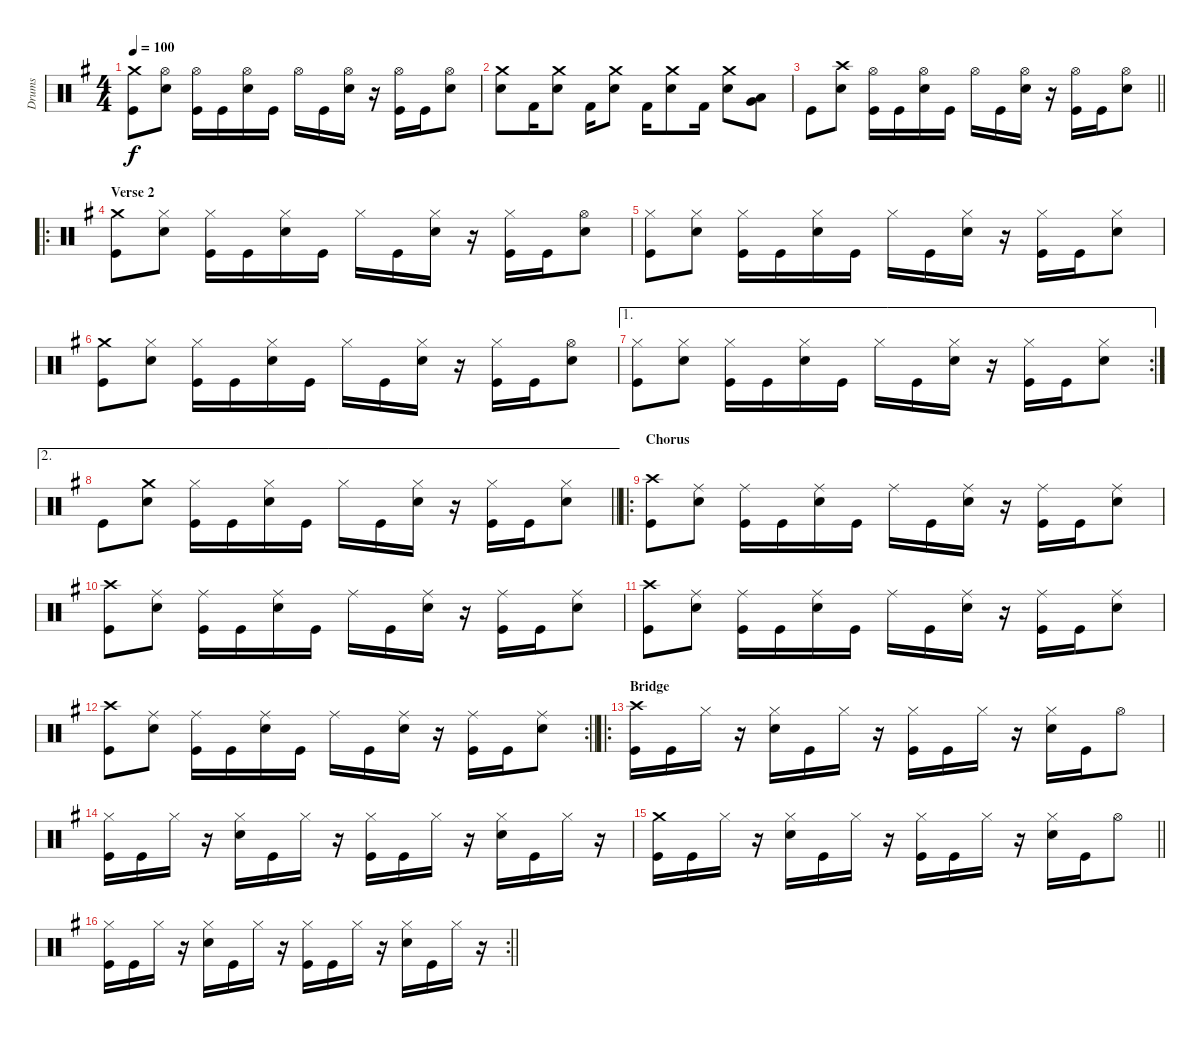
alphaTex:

\track ("Drums" "Drums") {instrument percussion}
\staff {score}
\articulation defaults
\ts (4 4)
\tempo 100
\clef neutral
\ks g
("Crash medium (hit)" "Kick (hit)").8{dy f} ("Hi-Hat (open)" "Electric Snare (hit)").8 ("Hi-Hat (open)" "Kick (hit)").16 "Kick (hit)".16 ("Hi-Hat (open)" "Electric Snare (hit)").16 "Kick (hit)".16 "Hi-Hat (open)".16 "Kick (hit)".16 ("Hi-Hat (open)" "Electric Snare (hit)").16 r.16 ("Hi-Hat (open)" "Kick (hit)").16 "Kick (hit)".16 ("Hi-Hat (open)" "Electric Snare (hit)").8 |
("Crash medium (hit)" "Electric Snare (hit)").8 "Kick (hit) 2".16 ("Crash medium (hit)" "Electric Snare (hit)").8 "Kick (hit) 2".16 ("Crash medium (hit)" "Electric Snare (hit)").8 "Kick (hit) 2".16 ("Crash medium (hit)" "Electric Snare (hit)").8 "Kick (hit) 2".16 ("Crash medium (hit)" "Electric Snare (hit)").8 ("Very Low Tom (hit)" "Low Floor Tom (hit)").8 |
\barLineRight lightlight "Kick (hit)".8
("Crash high (hit)" "Electric Snare (hit)").8 ("Hi-Hat (open)" "Kick (hit)").16 "Kick (hit)".16 ("Hi-Hat (open)" "Electric Snare (hit)").16 "Kick (hit)".16 "Hi-Hat (open)".16 "Kick (hit)".16 ("Hi-Hat (open)" "Electric Snare (hit)").16 r.16 ("Hi-Hat (open)" "Kick (hit)").16 "Kick (hit)".16 ("Hi-Hat (open)" "Electric Snare (hit)").8 |
\ro
\section ("" "Verse 2")
("Crash medium (hit)" "Kick (hit)").8 ("Hi-Hat (closed)" "Electric Snare (hit)").8 ("Hi-Hat (closed)" "Kick (hit)").16 "Kick (hit)".16 ("Hi-Hat (closed)" "Electric Snare (hit)").16 "Kick (hit)".16 "Hi-Hat (closed)".16 "Kick (hit)".16 ("Hi-Hat (closed)" "Electric Snare (hit)").16 r.16 ("Hi-Hat (closed)" "Kick (hit)").16 "Kick (hit)".16 ("Hi-Hat (open)" "Electric Snare (hit)").8 |
("Hi-Hat (closed)" "Kick (hit)").8 ("Hi-Hat (closed)" "Electric Snare (hit)").8 ("Hi-Hat (closed)" "Kick (hit)").16 "Kick (hit)".16 ("Hi-Hat (closed)" "Electric Snare (hit)").16 "Kick (hit)".16 "Hi-Hat (closed)".16 "Kick (hit)".16 ("Hi-Hat (closed)" "Electric Snare (hit)").16 r.16 ("Hi-Hat (closed)" "Kick (hit)").16 "Kick (hit)".16 ("Hi-Hat (closed)" "Electric Snare (hit)").8 |
("Crash medium (hit)" "Kick (hit)").8 ("Hi-Hat (closed)" "Electric Snare (hit)").8 ("Hi-Hat (closed)" "Kick (hit)").16 "Kick (hit)".16 ("Hi-Hat (closed)" "Electric Snare (hit)").16 "Kick (hit)".16 "Hi-Hat (closed)".16 "Kick (hit)".16 ("Hi-Hat (closed)" "Electric Snare (hit)").16 r.16 ("Hi-Hat (closed)" "Kick (hit)").16 "Kick (hit)".16 ("Hi-Hat (open)" "Electric Snare (hit)").8 |
\ae 1
\rc 2
("Hi-Hat (closed)" "Kick (hit)").8 ("Hi-Hat (closed)" "Electric Snare (hit)").8 ("Hi-Hat (closed)" "Kick (hit)").16 "Kick (hit)".16 ("Hi-Hat (closed)" "Electric Snare (hit)").16 "Kick (hit)".16 "Hi-Hat (closed)".16 "Kick (hit)".16 ("Hi-Hat (closed)" "Electric Snare (hit)").16 r.16 ("Hi-Hat (closed)" "Kick (hit)").16 "Kick (hit)".16 ("Hi-Hat (closed)" "Electric Snare (hit)").8 |
\ae 2
\barLineRight lightlight "Kick (hit)".8
("Crash medium (hit)" "Electric Snare (hit)").8 ("Hi-Hat (closed)" "Kick (hit)").16 "Kick (hit)".16 ("Hi-Hat (closed)" "Electric Snare (hit)").16 "Kick (hit)".16 "Hi-Hat (closed)".16 "Kick (hit)".16 ("Hi-Hat (closed)" "Electric Snare (hit)").16 r.16 ("Hi-Hat (closed)" "Kick (hit)").16 "Kick (hit)".16 ("Hi-Hat (closed)" "Electric Snare (hit)").8 |
\ro
\section ("" "Chorus")
("Crash high (hit)" "Kick (hit)").8 ("Ride (middle)" "Electric Snare (hit)").8 ("Ride (middle)" "Kick (hit)").16 "Kick (hit)".16 ("Ride (middle)" "Electric Snare (hit)").16 "Kick (hit)".16 "Ride (middle)".16 "Kick (hit)".16 ("Ride (middle)" "Electric Snare (hit)").16 r.16 ("Ride (middle)" "Kick (hit)").16 "Kick (hit)".16 ("Ride (middle)" "Electric Snare (hit)").8 |
("Crash high (hit)" "Kick (hit)").8 ("Ride (middle)" "Electric Snare (hit)").8 ("Ride (middle)" "Kick (hit)").16 "Kick (hit)".16 ("Ride (middle)" "Electric Snare (hit)").16 "Kick (hit)".16 "Ride (middle)".16 "Kick (hit)".16 ("Ride (middle)" "Electric Snare (hit)").16 r.16 ("Ride (middle)" "Kick (hit)").16 "Kick (hit)".16 ("Ride (middle)" "Electric Snare (hit)").8 |
("Crash high (hit)" "Kick (hit)").8 ("Ride (middle)" "Electric Snare (hit)").8 ("Ride (middle)" "Kick (hit)").16 "Kick (hit)".16 ("Ride (middle)" "Electric Snare (hit)").16 "Kick (hit)".16 "Ride (middle)".16 "Kick (hit)".16 ("Ride (middle)" "Electric Snare (hit)").16 r.16 ("Ride (middle)" "Kick (hit)").16 "Kick (hit)".16 ("Ride (middle)" "Electric Snare (hit)").8 |
\rc 2
\barLineRight lightlight
("Crash high (hit)" "Kick (hit)").8 ("Ride (middle)" "Electric Snare (hit)").8 ("Ride (middle)" "Kick (hit)").16 "Kick (hit)".16 ("Ride (middle)" "Electric Snare (hit)").16 "Kick (hit)".16 "Ride (middle)".16 "Kick (hit)".16 ("Ride (middle)" "Electric Snare (hit)").16 r.16 ("Ride (middle)" "Kick (hit)").16 "Kick (hit)".16 ("Ride (middle)" "Electric Snare (hit)").8 |
\ro
\section ("" "Bridge")
("Crash high (hit)" "Kick (hit)").16 "Kick (hit)".16 "Hi-Hat (closed)".16 r.16 ("Hi-Hat (closed)" "Electric Snare (hit)").16 "Kick (hit)".16 "Hi-Hat (closed)".16 r.16 ("Hi-Hat (closed)" "Kick (hit)").16 "Kick (hit)".16 "Hi-Hat (closed)".16 r.16 ("Hi-Hat (closed)" "Electric Snare (hit)").16 "Kick (hit)".16 "Hi-Hat (open)".8 |
("Hi-Hat (closed)" "Kick (hit)").16 "Kick (hit)".16 "Hi-Hat (closed)".16 r.16 ("Hi-Hat (closed)" "Electric Snare (hit)").16 "Kick (hit)".16 "Hi-Hat (closed)".16 r.16 ("Hi-Hat (closed)" "Kick (hit)").16 "Kick (hit)".16 "Hi-Hat (closed)".16 r.16 ("Hi-Hat (closed)" "Electric Snare (hit)").16 "Kick (hit)".16 "Hi-Hat (closed)".16 r.16 |
\barLineRight lightlight
("Crash medium (hit)" "Kick (hit)").16 "Kick (hit)".16 "Hi-Hat (closed)".16 r.16 ("Hi-Hat (closed)" "Electric Snare (hit)").16 "Kick (hit)".16 "Hi-Hat (closed)".16 r.16 ("Hi-Hat (closed)" "Kick (hit)").16 "Kick (hit)".16 "Hi-Hat (closed)".16 r.16 ("Hi-Hat (closed)" "Electric Snare (hit)").16 "Kick (hit)".16 "Hi-Hat (open)".8 |
\rc 2
\section ("" "")
\barLineRight lightlight
("Hi-Hat (closed)" "Kick (hit)").16 "Kick (hit)".16 "Hi-Hat (closed)".16 r.16 ("Hi-Hat (closed)" "Electric Snare (hit)").16 "Kick (hit)".16 "Hi-Hat (closed)".16 r.16 ("Hi-Hat (closed)" "Kick (hit)").16 "Kick (hit)".16 "Hi-Hat (closed)".16 r.16 ("Hi-Hat (closed)" "Electric Snare (hit)").16 "Kick (hit)".16 "Hi-Hat (closed)".16 r.16
